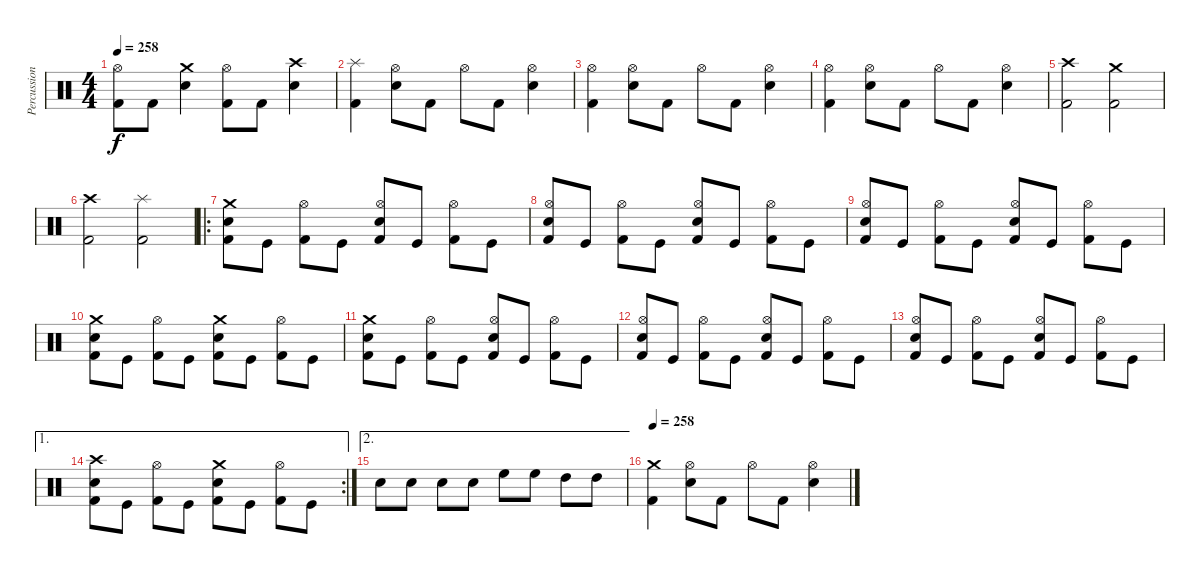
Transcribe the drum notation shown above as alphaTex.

\track ("Percussions" "Percussion") {instrument percussion}
\staff {score}
\articulation defaults
\ts (4 4)
\tempo 258
\clef neutral
\ks c
("Kick (hit) 2" "Hi-Hat (open)").8{dy f} "Kick (hit) 2".8 ("Electric Snare (hit)" "Crash medium (hit)").4 ("Kick (hit) 2" "Hi-Hat (open)").8 "Kick (hit) 2".8 ("Electric Snare (hit)" "Crash high (hit)").4 |
("Kick (hit) 2" "Splash (hit)").4 ("Electric Snare (hit)" "Hi-Hat (open)").8 "Kick (hit) 2".8 "Hi-Hat (open)".8 "Kick (hit) 2".8 ("Electric Snare (hit)" "Hi-Hat (open)").4 |
("Kick (hit) 2" "Hi-Hat (open)").4 ("Electric Snare (hit)" "Hi-Hat (open)").8 "Kick (hit) 2".8 "Hi-Hat (open)".8 "Kick (hit) 2".8 ("Electric Snare (hit)" "Hi-Hat (open)").4 |
("Kick (hit) 2" "Hi-Hat (open)").4 ("Electric Snare (hit)" "Hi-Hat (open)").8 "Kick (hit) 2".8 "Hi-Hat (open)".8 "Kick (hit) 2".8 ("Electric Snare (hit)" "Hi-Hat (open)").4 |
("Kick (hit) 2" "Crash high (hit)").2 ("Kick (hit) 2" "Crash medium (hit)").2 |
("Kick (hit) 2" "Crash high (hit)").2 ("Kick (hit) 2" "Splash (hit)").2 |
\ro
("Kick (hit) 2" "Electric Snare (hit)" "Crash medium (hit)").8 "Kick (hit)".8 ("Kick (hit) 2" "Hi-Hat (open)").8 "Kick (hit)".8 ("Kick (hit) 2" "Electric Snare (hit)" "Hi-Hat (open)").8 "Kick (hit)".8 ("Kick (hit) 2" "Hi-Hat (open)").8 "Kick (hit)".8 |
("Kick (hit) 2" "Electric Snare (hit)" "Hi-Hat (open)").8 "Kick (hit)".8 ("Kick (hit) 2" "Hi-Hat (open)").8 "Kick (hit)".8 ("Kick (hit) 2" "Electric Snare (hit)" "Hi-Hat (open)").8 "Kick (hit)".8 ("Kick (hit) 2" "Hi-Hat (open)").8 "Kick (hit)".8 |
("Kick (hit) 2" "Electric Snare (hit)" "Hi-Hat (open)").8 "Kick (hit)".8 ("Kick (hit) 2" "Hi-Hat (open)").8 "Kick (hit)".8 ("Kick (hit) 2" "Electric Snare (hit)" "Hi-Hat (open)").8 "Kick (hit)".8 ("Kick (hit) 2" "Hi-Hat (open)").8 "Kick (hit)".8 |
("Kick (hit) 2" "Electric Snare (hit)" "Crash medium (hit)").8 "Kick (hit)".8 ("Kick (hit) 2" "Hi-Hat (open)").8 "Kick (hit)".8 ("Kick (hit) 2" "Electric Snare (hit)" "Crash medium (hit)").8 "Kick (hit)".8 ("Kick (hit) 2" "Hi-Hat (open)").8 "Kick (hit)".8 |
("Kick (hit) 2" "Electric Snare (hit)" "Crash medium (hit)").8 "Kick (hit)".8 ("Kick (hit) 2" "Hi-Hat (open)").8 "Kick (hit)".8 ("Kick (hit) 2" "Electric Snare (hit)" "Hi-Hat (open)").8 "Kick (hit)".8 ("Kick (hit) 2" "Hi-Hat (open)").8 "Kick (hit)".8 |
("Kick (hit) 2" "Electric Snare (hit)" "Hi-Hat (open)").8 "Kick (hit)".8 ("Kick (hit) 2" "Hi-Hat (open)").8 "Kick (hit)".8 ("Kick (hit) 2" "Electric Snare (hit)" "Hi-Hat (open)").8 "Kick (hit)".8 ("Kick (hit) 2" "Hi-Hat (open)").8 "Kick (hit)".8 |
("Kick (hit) 2" "Electric Snare (hit)" "Hi-Hat (open)").8 "Kick (hit)".8 ("Kick (hit) 2" "Hi-Hat (open)").8 "Kick (hit)".8 ("Kick (hit) 2" "Electric Snare (hit)" "Hi-Hat (open)").8 "Kick (hit)".8 ("Kick (hit) 2" "Hi-Hat (open)").8 "Kick (hit)".8 |
\ae 1
\rc 2
("Kick (hit) 2" "Electric Snare (hit)" "Crash high (hit)").8 "Kick (hit)".8 ("Kick (hit) 2" "Hi-Hat (open)").8 "Kick (hit)".8 ("Kick (hit) 2" "Electric Snare (hit)" "Crash medium (hit)").8 "Kick (hit)".8 ("Kick (hit) 2" "Hi-Hat (open)").8 "Kick (hit)".8 |
\ae 2 "Electric Snare (hit)".8 "Electric Snare (hit)".8 "Electric Snare (hit)".8 "Electric Snare (hit)".8 "High Floor Tom (hit)".8 "High Floor Tom (hit)".8 "High Tom (hit)".8 "High Tom (hit)".8
|
\tempo 258
("Kick (hit) 2" "Crash medium (hit)").4 ("Electric Snare (hit)" "Hi-Hat (open)").8 "Kick (hit) 2".8 "Hi-Hat (open)".8 "Kick (hit) 2".8 ("Electric Snare (hit)" "Hi-Hat (open)").4
